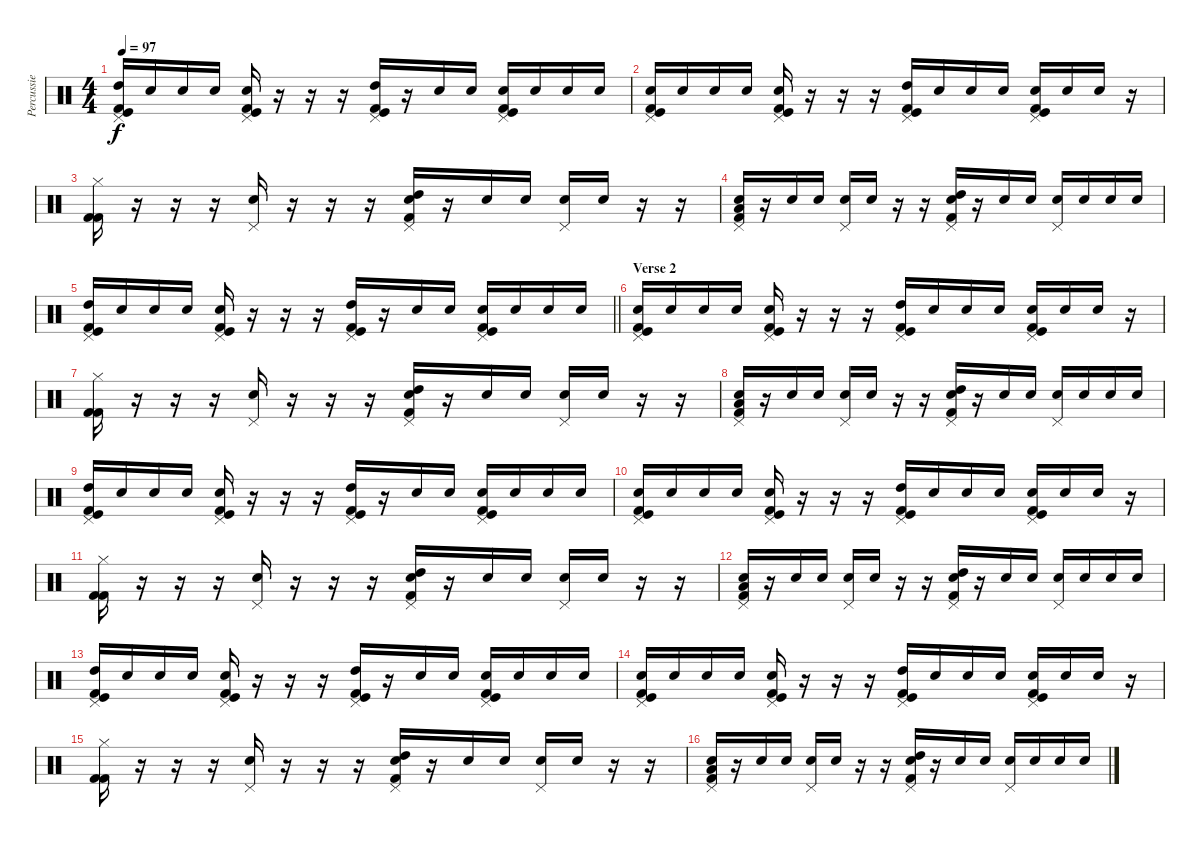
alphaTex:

\track ("Percussie" "Percussie") {instrument percussion}
\staff {score}
\articulation defaults
\ts (4 4)
\tempo 97
\clef neutral
\ks c
("Pedal Hi-Hat (hit)" "High Tom (hit)" "Kick (hit)" "Kick (hit) 2").16{dy f} "Hand Clap (hit)".16 "Hand Clap (hit)".16 "Hand Clap (hit)".16 ("Pedal Hi-Hat (hit)" "Electric Snare (hit)" "Kick (hit)" "Kick (hit) 2").16 r.16 r.16 r.16 ("Pedal Hi-Hat (hit)" "High Tom (hit)" "Kick (hit)" "Kick (hit) 2").16 r.16 "Hand Clap (hit)".16 "Hand Clap (hit)".16 ("Pedal Hi-Hat (hit)" "Electric Snare (hit)" "Kick (hit)" "Kick (hit) 2").16 "Hand Clap (hit)".16 "Hand Clap (hit)".16 "Hand Clap (hit)".16 |
("Pedal Hi-Hat (hit)" "Electric Snare (hit)" "Kick (hit)" "Kick (hit) 2").16 "Hand Clap (hit)".16 "Hand Clap (hit)".16 "Hand Clap (hit)".16 ("Pedal Hi-Hat (hit)" "Electric Snare (hit)" "Kick (hit)" "Kick (hit) 2").16 r.16 r.16 r.16 ("Pedal Hi-Hat (hit)" "High Tom (hit)" "Kick (hit)" "Kick (hit) 2").16 "Hand Clap (hit)".16 "Hand Clap (hit)".16 "Hand Clap (hit)".16 ("Pedal Hi-Hat (hit)" "Electric Snare (hit)" "Kick (hit)" "Kick (hit) 2").16 "Hand Clap (hit)".16 "Electric Snare (hit)".16 r.16 |
("Hi-Hat (closed)" "Kick (hit) 2" "Kick (hit) 2").16 r.16 r.16 r.16 ("Pedal Hi-Hat (hit)" "Hand Clap (hit)").16 r.16 r.16 r.16 ("Pedal Hi-Hat (hit)" "Electric Snare (hit)" "High Tom (hit)" "Kick (hit) 2").16 r.16 "Hand Clap (hit)".16 "Hand Clap (hit)".16 ("Pedal Hi-Hat (hit)" "Hand Clap (hit)").16 "Hand Clap (hit)".16 r.16 r.16 |
("Pedal Hi-Hat (hit)" "Electric Snare (hit)" "Low Tom (hit)" "Kick (hit) 2").16 r.16 "Hand Clap (hit)".16 "Hand Clap (hit)".16 ("Pedal Hi-Hat (hit)" "Hand Clap (hit)").16 "Hand Clap (hit)".16 r.16 r.16 ("Pedal Hi-Hat (hit)" "Electric Snare (hit)" "High Tom (hit)" "Kick (hit) 2").16 r.16 "Hand Clap (hit)".16 "Hand Clap (hit)".16 ("Pedal Hi-Hat (hit)" "Hand Clap (hit)").16 "Hand Clap (hit)".16 "Hand Clap (hit)".16 "Hand Clap (hit)".16 |
\barLineRight lightlight
("Pedal Hi-Hat (hit)" "High Tom (hit)" "Kick (hit)" "Kick (hit) 2").16 "Hand Clap (hit)".16 "Hand Clap (hit)".16 "Hand Clap (hit)".16 ("Pedal Hi-Hat (hit)" "Electric Snare (hit)" "Kick (hit)" "Kick (hit) 2").16 r.16 r.16 r.16 ("Pedal Hi-Hat (hit)" "High Tom (hit)" "Kick (hit)" "Kick (hit) 2").16 r.16 "Hand Clap (hit)".16 "Hand Clap (hit)".16 ("Pedal Hi-Hat (hit)" "Electric Snare (hit)" "Kick (hit)" "Kick (hit) 2").16 "Hand Clap (hit)".16 "Hand Clap (hit)".16 "Hand Clap (hit)".16 |
\section ("" "Verse 2")
("Pedal Hi-Hat (hit)" "Electric Snare (hit)" "Kick (hit)" "Kick (hit) 2").16 "Hand Clap (hit)".16 "Hand Clap (hit)".16 "Hand Clap (hit)".16 ("Pedal Hi-Hat (hit)" "Electric Snare (hit)" "Kick (hit)" "Kick (hit) 2").16 r.16 r.16 r.16 ("Pedal Hi-Hat (hit)" "High Tom (hit)" "Kick (hit)" "Kick (hit) 2").16 "Hand Clap (hit)".16 "Hand Clap (hit)".16 "Hand Clap (hit)".16 ("Pedal Hi-Hat (hit)" "Electric Snare (hit)" "Kick (hit)" "Kick (hit) 2").16 "Hand Clap (hit)".16 "Electric Snare (hit)".16 r.16 |
("Hi-Hat (closed)" "Kick (hit) 2" "Kick (hit) 2").16 r.16 r.16 r.16 ("Pedal Hi-Hat (hit)" "Hand Clap (hit)").16 r.16 r.16 r.16 ("Pedal Hi-Hat (hit)" "Electric Snare (hit)" "High Tom (hit)" "Kick (hit) 2").16 r.16 "Hand Clap (hit)".16 "Hand Clap (hit)".16 ("Pedal Hi-Hat (hit)" "Hand Clap (hit)").16 "Hand Clap (hit)".16 r.16 r.16 |
("Pedal Hi-Hat (hit)" "Electric Snare (hit)" "Low Tom (hit)" "Kick (hit) 2").16 r.16 "Hand Clap (hit)".16 "Hand Clap (hit)".16 ("Pedal Hi-Hat (hit)" "Hand Clap (hit)").16 "Hand Clap (hit)".16 r.16 r.16 ("Pedal Hi-Hat (hit)" "Electric Snare (hit)" "High Tom (hit)" "Kick (hit) 2").16 r.16 "Hand Clap (hit)".16 "Hand Clap (hit)".16 ("Pedal Hi-Hat (hit)" "Hand Clap (hit)").16 "Hand Clap (hit)".16 "Hand Clap (hit)".16 "Hand Clap (hit)".16 |
("Pedal Hi-Hat (hit)" "High Tom (hit)" "Kick (hit)" "Kick (hit) 2").16 "Hand Clap (hit)".16 "Hand Clap (hit)".16 "Hand Clap (hit)".16 ("Pedal Hi-Hat (hit)" "Electric Snare (hit)" "Kick (hit)" "Kick (hit) 2").16 r.16 r.16 r.16 ("Pedal Hi-Hat (hit)" "High Tom (hit)" "Kick (hit)" "Kick (hit) 2").16 r.16 "Hand Clap (hit)".16 "Hand Clap (hit)".16 ("Pedal Hi-Hat (hit)" "Electric Snare (hit)" "Kick (hit)" "Kick (hit) 2").16 "Hand Clap (hit)".16 "Hand Clap (hit)".16 "Hand Clap (hit)".16 |
("Pedal Hi-Hat (hit)" "Electric Snare (hit)" "Kick (hit)" "Kick (hit) 2").16 "Hand Clap (hit)".16 "Hand Clap (hit)".16 "Hand Clap (hit)".16 ("Pedal Hi-Hat (hit)" "Electric Snare (hit)" "Kick (hit)" "Kick (hit) 2").16 r.16 r.16 r.16 ("Pedal Hi-Hat (hit)" "High Tom (hit)" "Kick (hit)" "Kick (hit) 2").16 "Hand Clap (hit)".16 "Hand Clap (hit)".16 "Hand Clap (hit)".16 ("Pedal Hi-Hat (hit)" "Electric Snare (hit)" "Kick (hit)" "Kick (hit) 2").16 "Hand Clap (hit)".16 "Electric Snare (hit)".16 r.16 |
("Hi-Hat (closed)" "Kick (hit) 2" "Kick (hit) 2").16 r.16 r.16 r.16 ("Pedal Hi-Hat (hit)" "Hand Clap (hit)").16 r.16 r.16 r.16 ("Pedal Hi-Hat (hit)" "Electric Snare (hit)" "High Tom (hit)" "Kick (hit) 2").16 r.16 "Hand Clap (hit)".16 "Hand Clap (hit)".16 ("Pedal Hi-Hat (hit)" "Hand Clap (hit)").16 "Hand Clap (hit)".16 r.16 r.16 |
("Pedal Hi-Hat (hit)" "Electric Snare (hit)" "Low Tom (hit)" "Kick (hit) 2").16 r.16 "Hand Clap (hit)".16 "Hand Clap (hit)".16 ("Pedal Hi-Hat (hit)" "Hand Clap (hit)").16 "Hand Clap (hit)".16 r.16 r.16 ("Pedal Hi-Hat (hit)" "Electric Snare (hit)" "High Tom (hit)" "Kick (hit) 2").16 r.16 "Hand Clap (hit)".16 "Hand Clap (hit)".16 ("Pedal Hi-Hat (hit)" "Hand Clap (hit)").16 "Hand Clap (hit)".16 "Hand Clap (hit)".16 "Hand Clap (hit)".16 |
("Pedal Hi-Hat (hit)" "High Tom (hit)" "Kick (hit)" "Kick (hit) 2").16 "Hand Clap (hit)".16 "Hand Clap (hit)".16 "Hand Clap (hit)".16 ("Pedal Hi-Hat (hit)" "Electric Snare (hit)" "Kick (hit)" "Kick (hit) 2").16 r.16 r.16 r.16 ("Pedal Hi-Hat (hit)" "High Tom (hit)" "Kick (hit)" "Kick (hit) 2").16 r.16 "Hand Clap (hit)".16 "Hand Clap (hit)".16 ("Pedal Hi-Hat (hit)" "Electric Snare (hit)" "Kick (hit)" "Kick (hit) 2").16 "Hand Clap (hit)".16 "Hand Clap (hit)".16 "Hand Clap (hit)".16 |
("Pedal Hi-Hat (hit)" "Electric Snare (hit)" "Kick (hit)" "Kick (hit) 2").16 "Hand Clap (hit)".16 "Hand Clap (hit)".16 "Hand Clap (hit)".16 ("Pedal Hi-Hat (hit)" "Electric Snare (hit)" "Kick (hit)" "Kick (hit) 2").16 r.16 r.16 r.16 ("Pedal Hi-Hat (hit)" "High Tom (hit)" "Kick (hit)" "Kick (hit) 2").16 "Hand Clap (hit)".16 "Hand Clap (hit)".16 "Hand Clap (hit)".16 ("Pedal Hi-Hat (hit)" "Electric Snare (hit)" "Kick (hit)" "Kick (hit) 2").16 "Hand Clap (hit)".16 "Electric Snare (hit)".16 r.16 |
("Hi-Hat (closed)" "Kick (hit) 2" "Kick (hit) 2").16 r.16 r.16 r.16 ("Pedal Hi-Hat (hit)" "Hand Clap (hit)").16 r.16 r.16 r.16 ("Pedal Hi-Hat (hit)" "Electric Snare (hit)" "High Tom (hit)" "Kick (hit) 2").16 r.16 "Hand Clap (hit)".16 "Hand Clap (hit)".16 ("Pedal Hi-Hat (hit)" "Hand Clap (hit)").16 "Hand Clap (hit)".16 r.16 r.16 |
("Pedal Hi-Hat (hit)" "Electric Snare (hit)" "Low Tom (hit)" "Kick (hit) 2").16 r.16 "Hand Clap (hit)".16 "Hand Clap (hit)".16 ("Pedal Hi-Hat (hit)" "Hand Clap (hit)").16 "Hand Clap (hit)".16 r.16 r.16 ("Pedal Hi-Hat (hit)" "Electric Snare (hit)" "High Tom (hit)" "Kick (hit) 2").16 r.16 "Hand Clap (hit)".16 "Hand Clap (hit)".16 ("Pedal Hi-Hat (hit)" "Hand Clap (hit)").16 "Hand Clap (hit)".16 "Hand Clap (hit)".16 "Hand Clap (hit)".16
